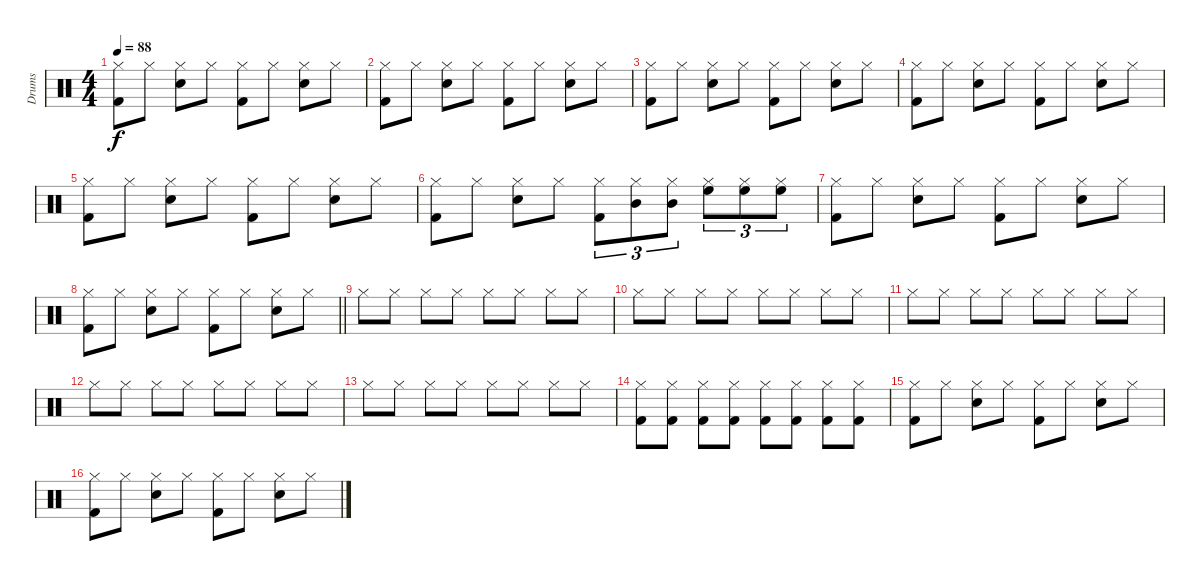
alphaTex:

\track ("Drums" "Drums") {instrument percussion}
\staff {score}
\articulation defaults
\ts (4 4)
\tempo 88
\clef neutral
\ks c
("Hi-Hat (closed)" "Kick (hit) 2").8{dy f} "Hi-Hat (closed)".8 ("Hi-Hat (closed)" "Snare (hit) 2").8 "Hi-Hat (closed)".8 ("Hi-Hat (closed)" "Kick (hit) 2").8 "Hi-Hat (closed)".8 ("Hi-Hat (closed)" "Snare (hit) 2").8 "Hi-Hat (closed)".8 |
("Hi-Hat (closed)" "Kick (hit) 2").8 "Hi-Hat (closed)".8 ("Hi-Hat (closed)" "Snare (hit) 2").8 "Hi-Hat (closed)".8 ("Hi-Hat (closed)" "Kick (hit) 2").8 "Hi-Hat (closed)".8 ("Hi-Hat (closed)" "Snare (hit) 2").8 "Hi-Hat (closed)".8 |
("Hi-Hat (closed)" "Kick (hit) 2").8 "Hi-Hat (closed)".8 ("Hi-Hat (closed)" "Snare (hit) 2").8 "Hi-Hat (closed)".8 ("Hi-Hat (closed)" "Kick (hit) 2").8 "Hi-Hat (closed)".8 ("Hi-Hat (closed)" "Snare (hit) 2").8 "Hi-Hat (closed)".8 |
("Hi-Hat (closed)" "Kick (hit) 2").8 "Hi-Hat (closed)".8 ("Hi-Hat (closed)" "Snare (hit) 2").8 "Hi-Hat (closed)".8 ("Hi-Hat (closed)" "Kick (hit) 2").8 "Hi-Hat (closed)".8 ("Hi-Hat (closed)" "Snare (hit) 2").8 "Hi-Hat (closed)".8 |
("Hi-Hat (closed)" "Kick (hit) 2").8 "Hi-Hat (closed)".8 ("Hi-Hat (closed)" "Snare (hit) 2").8 "Hi-Hat (closed)".8 ("Hi-Hat (closed)" "Kick (hit) 2").8 "Hi-Hat (closed)".8 ("Hi-Hat (closed)" "Snare (hit) 2").8 "Hi-Hat (closed)".8 |
("Hi-Hat (closed)" "Kick (hit) 2").8 "Hi-Hat (closed)".8 ("Hi-Hat (closed)" "Snare (hit) 2").8 "Hi-Hat (closed)".8 ("Hi-Hat (closed)" "Kick (hit) 2").8{tu (3 2)} ("Hi-Hat (closed)" "Mid Tom (hit)").8{tu (3 2)} ("Hi-Hat (closed)" "Mid Tom (hit)").8{tu (3 2)} ("Hi-Hat (closed)" "High Floor Tom (hit)").8{tu (3 2)} ("Hi-Hat (closed)" "High Floor Tom (hit)").8{tu (3 2)} ("Hi-Hat (closed)" "High Floor Tom (hit)").8{tu (3 2)} |
("Hi-Hat (closed)" "Kick (hit) 2").8 "Hi-Hat (closed)".8 ("Hi-Hat (closed)" "Snare (hit) 2").8 "Hi-Hat (closed)".8 ("Hi-Hat (closed)" "Kick (hit) 2").8 "Hi-Hat (closed)".8 ("Hi-Hat (closed)" "Snare (hit) 2").8 "Hi-Hat (closed)".8 |
\barLineRight lightlight
("Hi-Hat (closed)" "Kick (hit) 2").8 "Hi-Hat (closed)".8 ("Hi-Hat (closed)" "Snare (hit) 2").8 "Hi-Hat (closed)".8 ("Hi-Hat (closed)" "Kick (hit) 2").8 "Hi-Hat (closed)".8 ("Hi-Hat (closed)" "Snare (hit) 2").8 "Hi-Hat (closed)".8 |
"Hi-Hat (closed)".8 "Hi-Hat (closed)".8 "Hi-Hat (closed)".8 "Hi-Hat (closed)".8 "Hi-Hat (closed)".8 "Hi-Hat (closed)".8 "Hi-Hat (closed)".8 "Hi-Hat (closed)".8 |
"Hi-Hat (closed)".8 "Hi-Hat (closed)".8 "Hi-Hat (closed)".8 "Hi-Hat (closed)".8 "Hi-Hat (closed)".8 "Hi-Hat (closed)".8 "Hi-Hat (closed)".8 "Hi-Hat (closed)".8 |
"Hi-Hat (closed)".8 "Hi-Hat (closed)".8 "Hi-Hat (closed)".8 "Hi-Hat (closed)".8 "Hi-Hat (closed)".8 "Hi-Hat (closed)".8 "Hi-Hat (closed)".8 "Hi-Hat (closed)".8 |
"Hi-Hat (closed)".8 "Hi-Hat (closed)".8 "Hi-Hat (closed)".8 "Hi-Hat (closed)".8 "Hi-Hat (closed)".8 "Hi-Hat (closed)".8 "Hi-Hat (closed)".8 "Hi-Hat (closed)".8 |
"Hi-Hat (closed)".8 "Hi-Hat (closed)".8 "Hi-Hat (closed)".8 "Hi-Hat (closed)".8 "Hi-Hat (closed)".8 "Hi-Hat (closed)".8 "Hi-Hat (closed)".8 "Hi-Hat (closed)".8 |
("Hi-Hat (closed)" "Kick (hit) 2").8 ("Hi-Hat (closed)" "Kick (hit) 2").8 ("Hi-Hat (closed)" "Kick (hit) 2").8 ("Hi-Hat (closed)" "Kick (hit) 2").8 ("Hi-Hat (closed)" "Kick (hit) 2").8 ("Hi-Hat (closed)" "Kick (hit) 2").8 ("Hi-Hat (closed)" "Kick (hit) 2").8 ("Hi-Hat (closed)" "Kick (hit) 2").8 |
("Hi-Hat (closed)" "Kick (hit) 2").8 "Hi-Hat (closed)".8 ("Hi-Hat (closed)" "Snare (hit) 2").8 "Hi-Hat (closed)".8 ("Hi-Hat (closed)" "Kick (hit) 2").8 "Hi-Hat (closed)".8 ("Hi-Hat (closed)" "Snare (hit) 2").8 "Hi-Hat (closed)".8 |
("Hi-Hat (closed)" "Kick (hit) 2").8 "Hi-Hat (closed)".8 ("Hi-Hat (closed)" "Snare (hit) 2").8 "Hi-Hat (closed)".8 ("Hi-Hat (closed)" "Kick (hit) 2").8 "Hi-Hat (closed)".8 ("Hi-Hat (closed)" "Snare (hit) 2").8 "Hi-Hat (closed)".8
